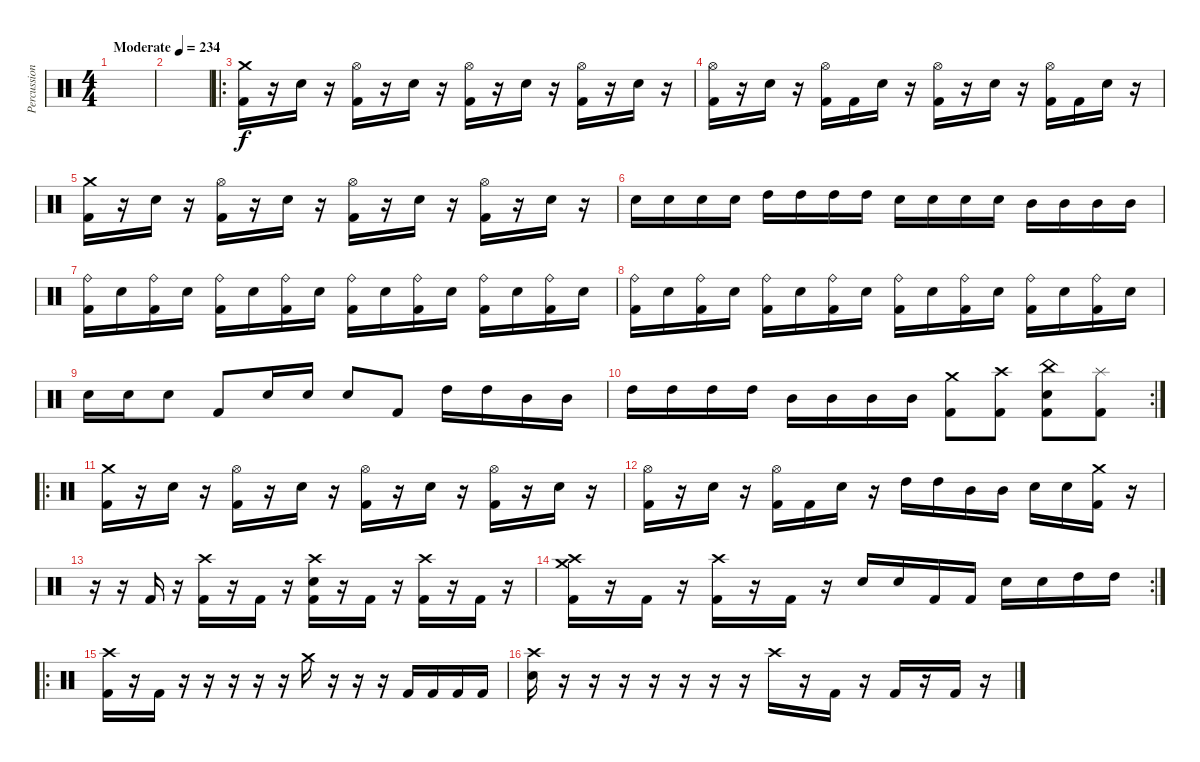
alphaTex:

\track ("Percussion" "Percussion") {instrument percussion}
\staff {score}
\articulation defaults
\ts (4 4)
\tempo (234 "Moderate")
\clef neutral
\ks c
|
|
\ro
("Crash medium (hit)" "Kick (hit) 2").16 r.16 "Electric Snare (hit)".16 r.16 ("Hi-Hat (open)" "Kick (hit) 2").16 r.16 "Electric Snare (hit)".16 r.16 ("Hi-Hat (open)" "Kick (hit) 2").16 r.16 "Electric Snare (hit)".16 r.16 ("Hi-Hat (open)" "Kick (hit) 2").16 r.16 "Electric Snare (hit)".16 r.16 |
("Hi-Hat (open)" "Kick (hit) 2").16 r.16 "Electric Snare (hit)".16 r.16 ("Hi-Hat (open)" "Kick (hit) 2").16 "Kick (hit) 2".16 "Electric Snare (hit)".16 r.16 ("Hi-Hat (open)" "Kick (hit) 2").16 r.16 "Electric Snare (hit)".16 r.16 ("Hi-Hat (open)" "Kick (hit) 2").16 "Kick (hit) 2".16 "Electric Snare (hit)".16 r.16 |
("Crash medium (hit)" "Kick (hit) 2").16 r.16 "Electric Snare (hit)".16 r.16 ("Hi-Hat (open)" "Kick (hit) 2").16 r.16 "Electric Snare (hit)".16 r.16 ("Hi-Hat (open)" "Kick (hit) 2").16 r.16 "Electric Snare (hit)".16 r.16 ("Hi-Hat (open)" "Kick (hit) 2").16 r.16 "Electric Snare (hit)".16 r.16 |
"Electric Snare (hit)".16 "Electric Snare (hit)".16 "Electric Snare (hit)".16 "Electric Snare (hit)".16 "High Tom (hit)".16 "High Tom (hit)".16 "High Tom (hit)".16 "High Tom (hit)".16 "Electric Snare (hit)".16 "Electric Snare (hit)".16 "Electric Snare (hit)".16 "Electric Snare (hit)".16 "Mid Tom (hit)".16 "Mid Tom (hit)".16 "Mid Tom (hit)".16 "Mid Tom (hit)".16 |
("Ride (bell)" "Kick (hit) 2").16 "Electric Snare (hit)".16 ("Ride (bell)" "Kick (hit) 2").16 "Electric Snare (hit)".16 ("Ride (bell)" "Kick (hit) 2").16 "Electric Snare (hit)".16 ("Ride (bell)" "Kick (hit) 2").16 "Electric Snare (hit)".16 ("Ride (bell)" "Kick (hit) 2").16 "Electric Snare (hit)".16 ("Ride (bell)" "Kick (hit) 2").16 "Electric Snare (hit)".16 ("Ride (bell)" "Kick (hit) 2").16 "Electric Snare (hit)".16 ("Ride (bell)" "Kick (hit) 2").16 "Electric Snare (hit)".16 |
("Ride (bell)" "Kick (hit) 2").16 "Electric Snare (hit)".16 ("Ride (bell)" "Kick (hit) 2").16 "Electric Snare (hit)".16 ("Ride (bell)" "Kick (hit) 2").16 "Electric Snare (hit)".16 ("Ride (bell)" "Kick (hit) 2").16 "Electric Snare (hit)".16 ("Ride (bell)" "Kick (hit) 2").16 "Electric Snare (hit)".16 ("Ride (bell)" "Kick (hit) 2").16 "Electric Snare (hit)".16 ("Ride (bell)" "Kick (hit) 2").16 "Electric Snare (hit)".16 ("Ride (bell)" "Kick (hit) 2").16 "Electric Snare (hit)".16 |
"Electric Snare (hit)".16 "Electric Snare (hit)".16 "Electric Snare (hit)".8 "Kick (hit) 2".8 "Electric Snare (hit)".16 "Electric Snare (hit)".16 "Electric Snare (hit)".8 "Kick (hit) 2".8 "High Tom (hit)".16 "High Tom (hit)".16 "Mid Tom (hit)".16 "Mid Tom (hit)".16 |
\rc 2 "High Tom (hit)".16 "High Tom (hit)".16 "High Tom (hit)".16 "High Tom (hit)".16 "Mid Tom (hit)".16 "Mid Tom (hit)".16 "Mid Tom (hit)".16 "Mid Tom (hit)".16
("Crash medium (hit)" "Kick (hit) 2").8 ("Crash high (hit)" "Kick (hit) 2").8 ("China (hit)" "Electric Snare (hit)" "Kick (hit) 2").8 ("Splash (hit)" "Kick (hit) 2").8 |
\ro
("Crash medium (hit)" "Kick (hit) 2").16 r.16 "Electric Snare (hit)".16 r.16 ("Hi-Hat (open)" "Kick (hit) 2").16 r.16 "Electric Snare (hit)".16 r.16 ("Hi-Hat (open)" "Kick (hit) 2").16 r.16 "Electric Snare (hit)".16 r.16 ("Hi-Hat (open)" "Kick (hit) 2").16 r.16 "Electric Snare (hit)".16 r.16 |
("Hi-Hat (open)" "Kick (hit) 2").16 r.16 "Electric Snare (hit)".16 r.16 ("Hi-Hat (open)" "Kick (hit) 2").16 "Kick (hit) 2".16 "Electric Snare (hit)".16 r.16 "High Tom (hit)".16 "High Tom (hit)".16 "Mid Tom (hit)".16 "Mid Tom (hit)".16 "Electric Snare (hit)".16 "Electric Snare (hit)".16 ("Crash medium (hit)" "Kick (hit) 2").16 r.16 |
r.16 r.16 "Kick (hit) 2".16 r.16 ("Crash high (hit)" "Kick (hit) 2").16 r.16 "Kick (hit) 2".16 r.16 ("Crash high (hit)" "Electric Snare (hit)" "Kick (hit) 2").16 r.16 "Kick (hit) 2".16 r.16 ("Crash high (hit)" "Kick (hit) 2").16 r.16 "Kick (hit) 2".16 r.16 |
\rc 2
("Crash high (hit)" "Crash medium (hit)" "Kick (hit) 2").16 r.16 "Kick (hit) 2".16 r.16 ("Crash high (hit)" "Kick (hit) 2").16 r.16 "Kick (hit) 2".16 r.16 "Electric Snare (hit)".16 "Electric Snare (hit)".16 "Kick (hit) 2".16 "Kick (hit) 2".16 "Electric Snare (hit)".16 "Electric Snare (hit)".16 "High Tom (hit)".16 "High Tom (hit)".16 |
\ro
("Crash high (hit)" "Kick (hit) 2").16 r.16 "Kick (hit) 2".16 r.16 r.16 r.16 r.16 r.16 "Crash medium (hit)".16 r.16 r.16 r.16 "Kick (hit) 2".16 "Kick (hit) 2".16 "Kick (hit) 2".16 "Kick (hit) 2".16 |
("Crash high (hit)" "Electric Snare (hit)").16 r.16 r.16 r.16 r.16 r.16 r.16 r.16 "Crash high (hit)".16 r.16 "Kick (hit) 2".16 r.16 "Kick (hit) 2".16 r.16 "Kick (hit) 2".16 r.16
